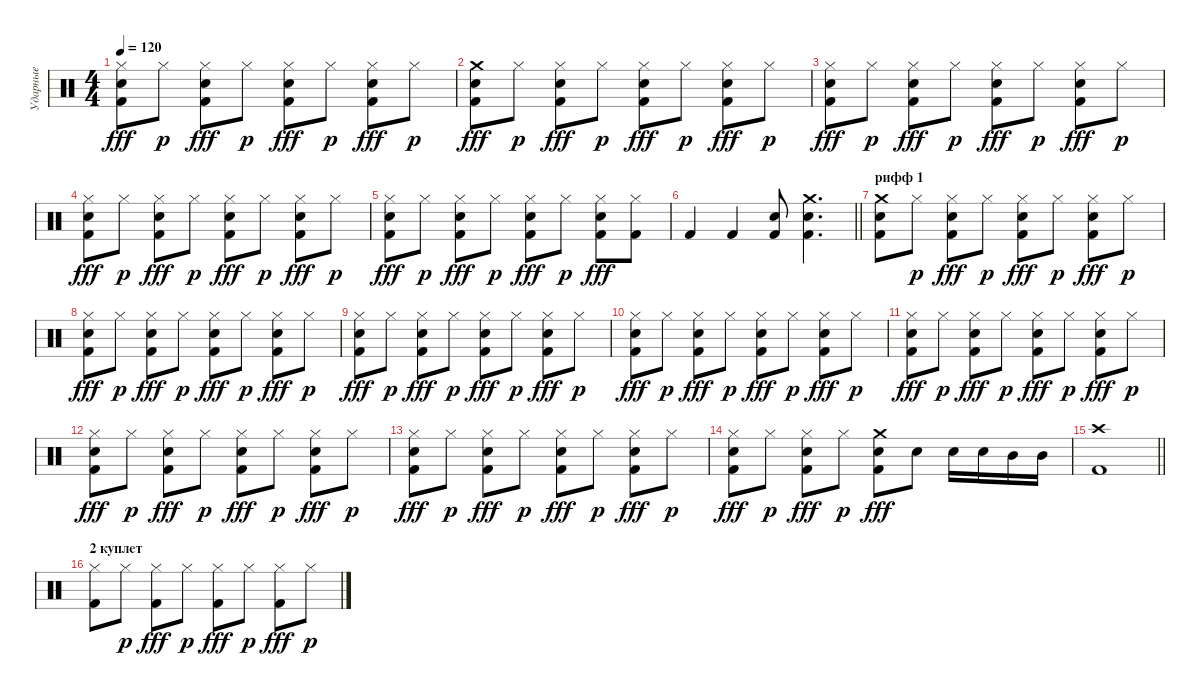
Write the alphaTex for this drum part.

\track ("Ударные" "Ударные") {instrument percussion}
\staff {score}
\articulation defaults
\ts (4 4)
\tempo 120
\clef neutral
\ks c
("Hi-Hat (closed)" "Snare (hit) 2" "Kick (hit) 2").8{dy fff} "Hi-Hat (closed)".8{dy p} ("Hi-Hat (closed)" "Snare (hit) 2" "Kick (hit) 2").8{dy fff} "Hi-Hat (closed)".8{dy p} ("Hi-Hat (closed)" "Snare (hit) 2" "Kick (hit) 2").8{dy fff} "Hi-Hat (closed)".8{dy p} ("Hi-Hat (closed)" "Snare (hit) 2" "Kick (hit) 2").8{dy fff} "Hi-Hat (closed)".8{dy p} |
("Crash medium (hit)" "Snare (hit) 2" "Kick (hit) 2").8{dy fff} "Hi-Hat (closed)".8{dy p} ("Hi-Hat (closed)" "Snare (hit) 2" "Kick (hit) 2").8{dy fff} "Hi-Hat (closed)".8{dy p} ("Hi-Hat (closed)" "Snare (hit) 2" "Kick (hit) 2").8{dy fff} "Hi-Hat (closed)".8{dy p} ("Hi-Hat (closed)" "Snare (hit) 2" "Kick (hit) 2").8{dy fff} "Hi-Hat (closed)".8{dy p} |
("Hi-Hat (closed)" "Snare (hit) 2" "Kick (hit) 2").8{dy fff} "Hi-Hat (closed)".8{dy p} ("Hi-Hat (closed)" "Snare (hit) 2" "Kick (hit) 2").8{dy fff} "Hi-Hat (closed)".8{dy p} ("Hi-Hat (closed)" "Snare (hit) 2" "Kick (hit) 2").8{dy fff} "Hi-Hat (closed)".8{dy p} ("Hi-Hat (closed)" "Snare (hit) 2" "Kick (hit) 2").8{dy fff} "Hi-Hat (closed)".8{dy p} |
("Hi-Hat (closed)" "Snare (hit) 2" "Kick (hit) 2").8{dy fff} "Hi-Hat (closed)".8{dy p} ("Hi-Hat (closed)" "Snare (hit) 2" "Kick (hit) 2").8{dy fff} "Hi-Hat (closed)".8{dy p} ("Hi-Hat (closed)" "Snare (hit) 2" "Kick (hit) 2").8{dy fff} "Hi-Hat (closed)".8{dy p} ("Hi-Hat (closed)" "Snare (hit) 2" "Kick (hit) 2").8{dy fff} "Hi-Hat (closed)".8{dy p} |
("Hi-Hat (closed)" "Snare (hit) 2" "Kick (hit) 2").8{dy fff} "Hi-Hat (closed)".8{dy p} ("Hi-Hat (closed)" "Snare (hit) 2" "Kick (hit) 2").8{dy fff} "Hi-Hat (closed)".8{dy p} ("Hi-Hat (closed)" "Snare (hit) 2" "Kick (hit) 2").8{dy fff} "Hi-Hat (closed)".8{dy p} ("Hi-Hat (closed)" "Snare (hit) 2" "Kick (hit) 2").8{dy fff} ("Hi-Hat (closed)" "Kick (hit) 2").8 |
\barLineRight lightlight "Kick (hit) 2".4 "Kick (hit) 2".4
("Snare (hit) 2" "Kick (hit) 2").8 ("Crash medium (hit)" "Snare (hit) 2" "Kick (hit) 2").4{d} |
\section ("" "рифф 1")
("Crash medium (hit)" "Snare (hit) 2" "Kick (hit) 2").8 "Hi-Hat (closed)".8{dy p} ("Hi-Hat (closed)" "Snare (hit) 2" "Kick (hit) 2").8{dy fff} "Hi-Hat (closed)".8{dy p} ("Hi-Hat (closed)" "Snare (hit) 2" "Kick (hit) 2").8{dy fff} "Hi-Hat (closed)".8{dy p} ("Hi-Hat (closed)" "Snare (hit) 2" "Kick (hit) 2").8{dy fff} "Hi-Hat (closed)".8{dy p} |
("Hi-Hat (closed)" "Snare (hit) 2" "Kick (hit) 2").8{dy fff} "Hi-Hat (closed)".8{dy p} ("Hi-Hat (closed)" "Snare (hit) 2" "Kick (hit) 2").8{dy fff} "Hi-Hat (closed)".8{dy p} ("Hi-Hat (closed)" "Snare (hit) 2" "Kick (hit) 2").8{dy fff} "Hi-Hat (closed)".8{dy p} ("Hi-Hat (closed)" "Snare (hit) 2" "Kick (hit) 2").8{dy fff} "Hi-Hat (closed)".8{dy p} |
("Hi-Hat (closed)" "Snare (hit) 2" "Kick (hit) 2").8{dy fff} "Hi-Hat (closed)".8{dy p} ("Hi-Hat (closed)" "Snare (hit) 2" "Kick (hit) 2").8{dy fff} "Hi-Hat (closed)".8{dy p} ("Hi-Hat (closed)" "Snare (hit) 2" "Kick (hit) 2").8{dy fff} "Hi-Hat (closed)".8{dy p} ("Hi-Hat (closed)" "Snare (hit) 2" "Kick (hit) 2").8{dy fff} "Hi-Hat (closed)".8{dy p} |
("Hi-Hat (closed)" "Snare (hit) 2" "Kick (hit) 2").8{dy fff} "Hi-Hat (closed)".8{dy p} ("Hi-Hat (closed)" "Snare (hit) 2" "Kick (hit) 2").8{dy fff} "Hi-Hat (closed)".8{dy p} ("Hi-Hat (closed)" "Snare (hit) 2" "Kick (hit) 2").8{dy fff} "Hi-Hat (closed)".8{dy p} ("Hi-Hat (closed)" "Snare (hit) 2" "Kick (hit) 2").8{dy fff} "Hi-Hat (closed)".8{dy p} |
("Hi-Hat (closed)" "Snare (hit) 2" "Kick (hit) 2").8{dy fff} "Hi-Hat (closed)".8{dy p} ("Hi-Hat (closed)" "Snare (hit) 2" "Kick (hit) 2").8{dy fff} "Hi-Hat (closed)".8{dy p} ("Hi-Hat (closed)" "Snare (hit) 2" "Kick (hit) 2").8{dy fff} "Hi-Hat (closed)".8{dy p} ("Hi-Hat (closed)" "Snare (hit) 2" "Kick (hit) 2").8{dy fff} "Hi-Hat (closed)".8{dy p} |
("Hi-Hat (closed)" "Snare (hit) 2" "Kick (hit) 2").8{dy fff} "Hi-Hat (closed)".8{dy p} ("Hi-Hat (closed)" "Snare (hit) 2" "Kick (hit) 2").8{dy fff} "Hi-Hat (closed)".8{dy p} ("Hi-Hat (closed)" "Snare (hit) 2" "Kick (hit) 2").8{dy fff} "Hi-Hat (closed)".8{dy p} ("Hi-Hat (closed)" "Snare (hit) 2" "Kick (hit) 2").8{dy fff} "Hi-Hat (closed)".8{dy p} |
("Hi-Hat (closed)" "Snare (hit) 2" "Kick (hit) 2").8{dy fff} "Hi-Hat (closed)".8{dy p} ("Hi-Hat (closed)" "Snare (hit) 2" "Kick (hit) 2").8{dy fff} "Hi-Hat (closed)".8{dy p} ("Hi-Hat (closed)" "Snare (hit) 2" "Kick (hit) 2").8{dy fff} "Hi-Hat (closed)".8{dy p} ("Hi-Hat (closed)" "Snare (hit) 2" "Kick (hit) 2").8{dy fff} "Hi-Hat (closed)".8{dy p} |
("Hi-Hat (closed)" "Snare (hit) 2" "Kick (hit) 2").8{dy fff} "Hi-Hat (closed)".8{dy p} ("Hi-Hat (closed)" "Snare (hit) 2" "Kick (hit) 2").8{dy fff} "Hi-Hat (closed)".8{dy p} ("Crash medium (hit)" "Snare (hit) 2" "Kick (hit) 2").8{dy fff} "Snare (hit) 2".8 "Snare (hit) 2".16 "Snare (hit) 2".16 "Mid Tom (hit)".16 "Mid Tom (hit)".16 |
\barLineRight lightlight
("Crash high (hit)" "Kick (hit) 2").1 |
\section ("" "2 куплет")
("Hi-Hat (closed)" "Kick (hit) 2").8 "Hi-Hat (closed)".8{dy p} ("Hi-Hat (closed)" "Kick (hit) 2").8{dy fff} "Hi-Hat (closed)".8{dy p} ("Hi-Hat (closed)" "Kick (hit) 2").8{dy fff} "Hi-Hat (closed)".8{dy p} ("Hi-Hat (closed)" "Kick (hit) 2").8{dy fff} "Hi-Hat (closed)".8{dy p}
